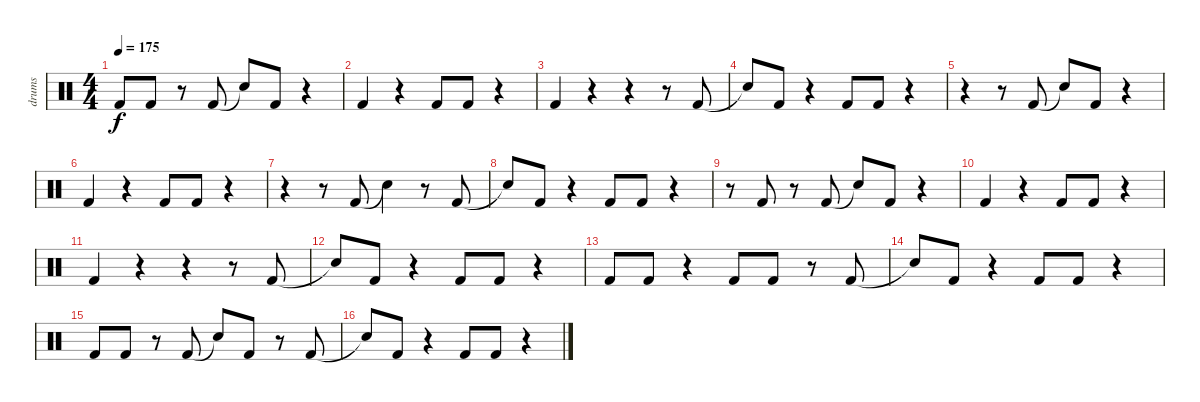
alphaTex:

\track ("drums" "drums") {instrument percussion}
\staff {score}
\articulation defaults
\ts (4 4)
\tempo 175
\clef neutral
\ks c "Kick (hit) 2".8{dy f} "Kick (hit) 2".8
r.8 "Kick (hit) 2".8 "Snare (hit)"{t}.8 "Kick (hit) 2".8 r.4 |
"Kick (hit) 2".4 r.4 "Kick (hit) 2".8 "Kick (hit) 2".8 r.4 |
"Kick (hit) 2".4 r.4 r.4 r.8 "Kick (hit) 2".8 |
"Snare (hit)"{t}.8 "Kick (hit) 2".8 r.4 "Kick (hit) 2".8 "Kick (hit) 2".8 r.4 |
r.4 r.8 "Kick (hit) 2".8 "Snare (hit)"{t}.8 "Kick (hit) 2".8 r.4 |
"Kick (hit) 2".4 r.4 "Kick (hit) 2".8 "Kick (hit) 2".8 r.4 |
r.4 r.8 "Kick (hit) 2".8 "Snare (hit)"{t}.4 r.8 "Kick (hit) 2".8 |
"Snare (hit)"{t}.8 "Kick (hit) 2".8 r.4 "Kick (hit) 2".8 "Kick (hit) 2".8 r.4 |
r.8 "Kick (hit) 2".8 r.8 "Kick (hit) 2".8 "Snare (hit)"{t}.8 "Kick (hit) 2".8 r.4 |
"Kick (hit) 2".4 r.4 "Kick (hit) 2".8 "Kick (hit) 2".8 r.4 |
"Kick (hit) 2".4 r.4 r.4 r.8 "Kick (hit) 2".8 |
"Snare (hit)"{t}.8 "Kick (hit) 2".8 r.4 "Kick (hit) 2".8 "Kick (hit) 2".8 r.4 |
"Kick (hit) 2".8 "Kick (hit) 2".8 r.4 "Kick (hit) 2".8 "Kick (hit) 2".8 r.8 "Kick (hit) 2".8 |
"Snare (hit)"{t}.8 "Kick (hit) 2".8 r.4 "Kick (hit) 2".8 "Kick (hit) 2".8 r.4 |
"Kick (hit) 2".8 "Kick (hit) 2".8 r.8 "Kick (hit) 2".8 "Snare (hit)"{t}.8 "Kick (hit) 2".8 r.8 "Kick (hit) 2".8 |
"Snare (hit)"{t}.8 "Kick (hit) 2".8 r.4 "Kick (hit) 2".8 "Kick (hit) 2".8 r.4
